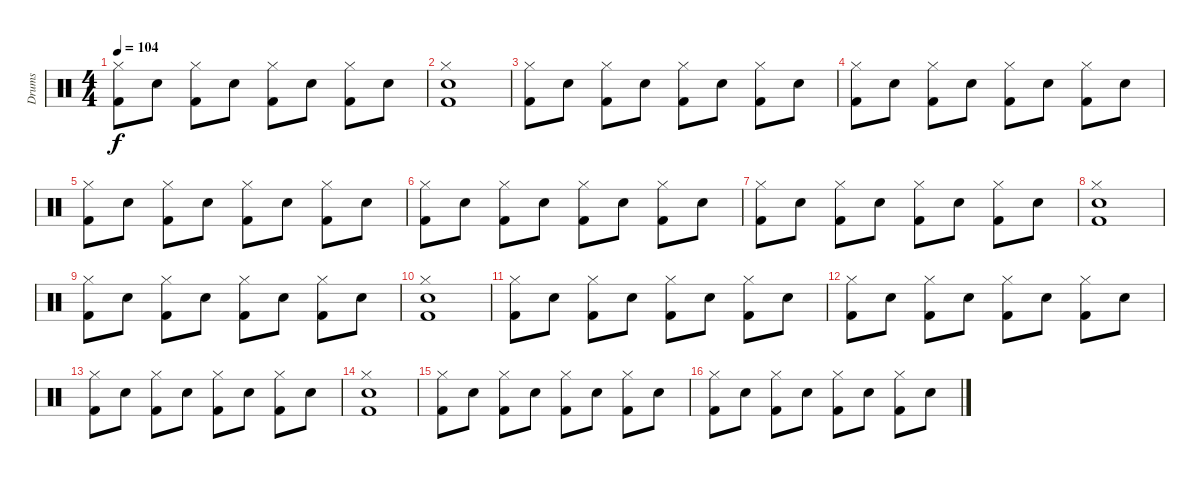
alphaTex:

\track ("Drums" "Drums") {instrument percussion}
\staff {score}
\articulation defaults
\ts (4 4)
\tempo 104
\clef neutral
\ks c
("Hi-Hat (closed)" "Kick (hit) 2").8{dy f} "Snare (hit) 2".8 ("Hi-Hat (closed)" "Kick (hit) 2").8 "Snare (hit) 2".8 ("Hi-Hat (closed)" "Kick (hit) 2").8 "Snare (hit) 2".8 ("Hi-Hat (closed)" "Kick (hit) 2").8 "Snare (hit) 2".8 |
("Hi-Hat (closed)" "Snare (hit) 2" "Kick (hit) 2").1 |
("Hi-Hat (closed)" "Kick (hit) 2").8 "Snare (hit) 2".8 ("Hi-Hat (closed)" "Kick (hit) 2").8 "Snare (hit) 2".8 ("Hi-Hat (closed)" "Kick (hit) 2").8 "Snare (hit) 2".8 ("Hi-Hat (closed)" "Kick (hit) 2").8 "Snare (hit) 2".8 |
("Hi-Hat (closed)" "Kick (hit) 2").8 "Snare (hit) 2".8 ("Hi-Hat (closed)" "Kick (hit) 2").8 "Snare (hit) 2".8 ("Hi-Hat (closed)" "Kick (hit) 2").8 "Snare (hit) 2".8 ("Hi-Hat (closed)" "Kick (hit) 2").8 "Snare (hit) 2".8 |
("Hi-Hat (closed)" "Kick (hit) 2").8 "Snare (hit) 2".8 ("Hi-Hat (closed)" "Kick (hit) 2").8 "Snare (hit) 2".8 ("Hi-Hat (closed)" "Kick (hit) 2").8 "Snare (hit) 2".8 ("Hi-Hat (closed)" "Kick (hit) 2").8 "Snare (hit) 2".8 |
("Hi-Hat (closed)" "Kick (hit) 2").8 "Snare (hit) 2".8 ("Hi-Hat (closed)" "Kick (hit) 2").8 "Snare (hit) 2".8 ("Hi-Hat (closed)" "Kick (hit) 2").8 "Snare (hit) 2".8 ("Hi-Hat (closed)" "Kick (hit) 2").8 "Snare (hit) 2".8 |
("Hi-Hat (closed)" "Kick (hit) 2").8 "Snare (hit) 2".8 ("Hi-Hat (closed)" "Kick (hit) 2").8 "Snare (hit) 2".8 ("Hi-Hat (closed)" "Kick (hit) 2").8 "Snare (hit) 2".8 ("Hi-Hat (closed)" "Kick (hit) 2").8 "Snare (hit) 2".8 |
("Hi-Hat (closed)" "Snare (hit) 2" "Kick (hit) 2").1 |
("Hi-Hat (closed)" "Kick (hit) 2").8 "Snare (hit) 2".8 ("Hi-Hat (closed)" "Kick (hit) 2").8 "Snare (hit) 2".8 ("Hi-Hat (closed)" "Kick (hit) 2").8 "Snare (hit) 2".8 ("Hi-Hat (closed)" "Kick (hit) 2").8 "Snare (hit) 2".8 |
("Hi-Hat (closed)" "Snare (hit) 2" "Kick (hit) 2").1 |
("Hi-Hat (closed)" "Kick (hit) 2").8 "Snare (hit) 2".8 ("Hi-Hat (closed)" "Kick (hit) 2").8 "Snare (hit) 2".8 ("Hi-Hat (closed)" "Kick (hit) 2").8 "Snare (hit) 2".8 ("Hi-Hat (closed)" "Kick (hit) 2").8 "Snare (hit) 2".8 |
("Hi-Hat (closed)" "Kick (hit) 2").8 "Snare (hit) 2".8 ("Hi-Hat (closed)" "Kick (hit) 2").8 "Snare (hit) 2".8 ("Hi-Hat (closed)" "Kick (hit) 2").8 "Snare (hit) 2".8 ("Hi-Hat (closed)" "Kick (hit) 2").8 "Snare (hit) 2".8 |
("Hi-Hat (closed)" "Kick (hit) 2").8 "Snare (hit) 2".8 ("Hi-Hat (closed)" "Kick (hit) 2").8 "Snare (hit) 2".8 ("Hi-Hat (closed)" "Kick (hit) 2").8 "Snare (hit) 2".8 ("Hi-Hat (closed)" "Kick (hit) 2").8 "Snare (hit) 2".8 |
("Hi-Hat (closed)" "Snare (hit) 2" "Kick (hit) 2").1 |
("Hi-Hat (closed)" "Kick (hit) 2").8 "Snare (hit) 2".8 ("Hi-Hat (closed)" "Kick (hit) 2").8 "Snare (hit) 2".8 ("Hi-Hat (closed)" "Kick (hit) 2").8 "Snare (hit) 2".8 ("Hi-Hat (closed)" "Kick (hit) 2").8 "Snare (hit) 2".8 |
("Hi-Hat (closed)" "Kick (hit) 2").8 "Snare (hit) 2".8 ("Hi-Hat (closed)" "Kick (hit) 2").8 "Snare (hit) 2".8 ("Hi-Hat (closed)" "Kick (hit) 2").8 "Snare (hit) 2".8 ("Hi-Hat (closed)" "Kick (hit) 2").8 "Snare (hit) 2".8
